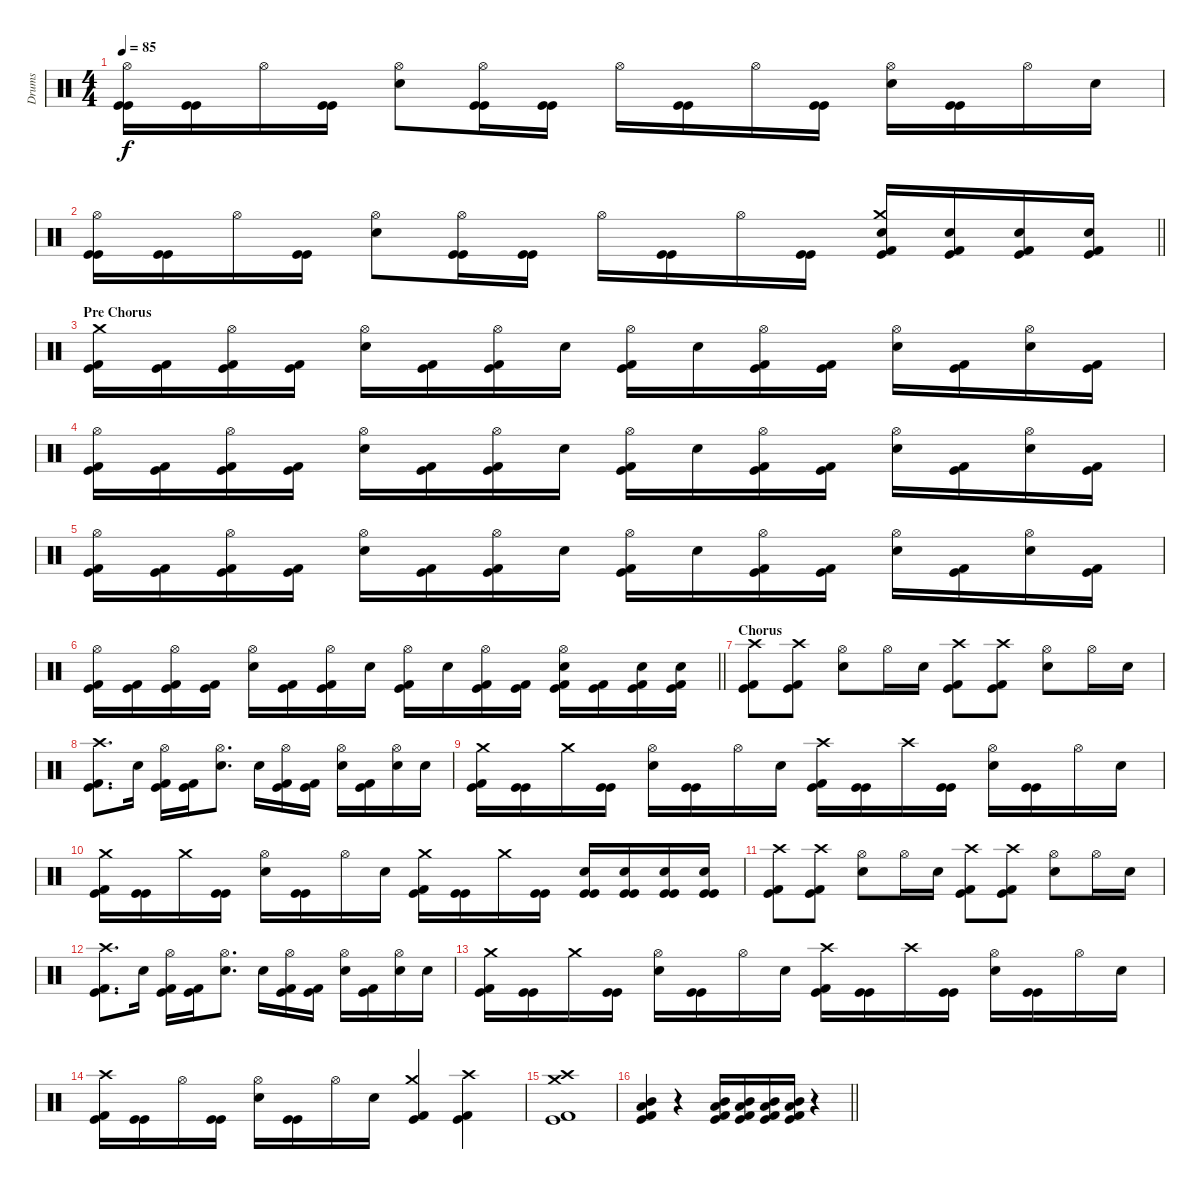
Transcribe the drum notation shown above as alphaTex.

\track ("Drums" "Drums") {instrument percussion}
\staff {score}
\articulation defaults
\ts (4 4)
\tempo 85
\clef neutral
\ks c
("Hi-Hat (open)" "Kick (hit)" "Kick (hit)").16{dy f} ("Kick (hit)" "Kick (hit)").16 "Hi-Hat (open)".16 ("Kick (hit)" "Kick (hit)").16 ("Electric Snare (hit)" "Hi-Hat (open)").8 ("Hi-Hat (open)" "Kick (hit)" "Kick (hit)").16 ("Kick (hit)" "Kick (hit)").16 "Hi-Hat (open)".16 ("Kick (hit)" "Kick (hit)").16 "Hi-Hat (open)".16 ("Kick (hit)" "Kick (hit)").16 ("Electric Snare (hit)" "Hi-Hat (open)").16 ("Kick (hit)" "Kick (hit)").16 "Hi-Hat (open)".16 "Electric Snare (hit)".16 |
\barLineRight lightlight
("Hi-Hat (open)" "Kick (hit)" "Kick (hit)").16 ("Kick (hit)" "Kick (hit)").16 "Hi-Hat (open)".16 ("Kick (hit)" "Kick (hit)").16 ("Electric Snare (hit)" "Hi-Hat (open)").8 ("Hi-Hat (open)" "Kick (hit)" "Kick (hit)").16 ("Kick (hit)" "Kick (hit)").16 "Hi-Hat (open)".16 ("Kick (hit)" "Kick (hit)").16 "Hi-Hat (open)".16 ("Kick (hit)" "Kick (hit)").16 ("Electric Snare (hit)" "Crash medium (hit)" "Kick (hit) 2" "Kick (hit)").16 ("Electric Snare (hit)" "Kick (hit) 2" "Kick (hit)").16 ("Electric Snare (hit)" "Kick (hit) 2" "Kick (hit)").16 ("Electric Snare (hit)" "Kick (hit) 2" "Kick (hit)").16 |
\section ("" "Pre Chorus")
("Crash medium (hit)" "Kick (hit) 2" "Kick (hit)").16 ("Kick (hit) 2" "Kick (hit)").16 ("Hi-Hat (open)" "Kick (hit) 2" "Kick (hit)").16 ("Kick (hit) 2" "Kick (hit)").16 ("Electric Snare (hit)" "Hi-Hat (open)").16 ("Kick (hit) 2" "Kick (hit)").16 ("Hi-Hat (open)" "Kick (hit) 2" "Kick (hit)").16 "Electric Snare (hit)".16 ("Hi-Hat (open)" "Kick (hit) 2" "Kick (hit)").16 "Electric Snare (hit)".16 ("Hi-Hat (open)" "Kick (hit) 2" "Kick (hit)").16 ("Kick (hit) 2" "Kick (hit)").16 ("Electric Snare (hit)" "Hi-Hat (open)").16 ("Kick (hit) 2" "Kick (hit)").16 ("Electric Snare (hit)" "Hi-Hat (open)").16 ("Kick (hit) 2" "Kick (hit)").16 |
("Hi-Hat (open)" "Kick (hit) 2" "Kick (hit)").16 ("Kick (hit) 2" "Kick (hit)").16 ("Hi-Hat (open)" "Kick (hit) 2" "Kick (hit)").16 ("Kick (hit) 2" "Kick (hit)").16 ("Electric Snare (hit)" "Hi-Hat (open)").16 ("Kick (hit) 2" "Kick (hit)").16 ("Hi-Hat (open)" "Kick (hit) 2" "Kick (hit)").16 "Electric Snare (hit)".16 ("Hi-Hat (open)" "Kick (hit) 2" "Kick (hit)").16 "Electric Snare (hit)".16 ("Hi-Hat (open)" "Kick (hit) 2" "Kick (hit)").16 ("Kick (hit) 2" "Kick (hit)").16 ("Electric Snare (hit)" "Hi-Hat (open)").16 ("Kick (hit) 2" "Kick (hit)").16 ("Electric Snare (hit)" "Hi-Hat (open)").16 ("Kick (hit) 2" "Kick (hit)").16 |
("Hi-Hat (open)" "Kick (hit) 2" "Kick (hit)").16 ("Kick (hit) 2" "Kick (hit)").16 ("Hi-Hat (open)" "Kick (hit) 2" "Kick (hit)").16 ("Kick (hit) 2" "Kick (hit)").16 ("Electric Snare (hit)" "Hi-Hat (open)").16 ("Kick (hit) 2" "Kick (hit)").16 ("Hi-Hat (open)" "Kick (hit) 2" "Kick (hit)").16 "Electric Snare (hit)".16 ("Hi-Hat (open)" "Kick (hit) 2" "Kick (hit)").16 "Electric Snare (hit)".16 ("Hi-Hat (open)" "Kick (hit) 2" "Kick (hit)").16 ("Kick (hit) 2" "Kick (hit)").16 ("Electric Snare (hit)" "Hi-Hat (open)").16 ("Kick (hit) 2" "Kick (hit)").16 ("Electric Snare (hit)" "Hi-Hat (open)").16 ("Kick (hit) 2" "Kick (hit)").16 |
\barLineRight lightlight
("Hi-Hat (open)" "Kick (hit) 2" "Kick (hit)").16 ("Kick (hit) 2" "Kick (hit)").16 ("Hi-Hat (open)" "Kick (hit) 2" "Kick (hit)").16 ("Kick (hit) 2" "Kick (hit)").16 ("Electric Snare (hit)" "Hi-Hat (open)").16 ("Kick (hit) 2" "Kick (hit)").16 ("Hi-Hat (open)" "Kick (hit) 2" "Kick (hit)").16 "Electric Snare (hit)".16 ("Hi-Hat (open)" "Kick (hit) 2" "Kick (hit)").16 "Electric Snare (hit)".16 ("Hi-Hat (open)" "Kick (hit) 2" "Kick (hit)").16 ("Kick (hit) 2" "Kick (hit)").16 ("Electric Snare (hit)" "Hi-Hat (open)" "Kick (hit)" "Kick (hit) 2").16 ("Kick (hit)" "Kick (hit) 2").16 ("Electric Snare (hit)" "Kick (hit)" "Kick (hit) 2").16 ("Electric Snare (hit)" "Kick (hit)" "Kick (hit) 2").16 |
\section ("" "Chorus")
("Crash high (hit)" "Kick (hit)" "Kick (hit) 2").8 ("Crash high (hit)" "Kick (hit)" "Kick (hit) 2").8 ("Electric Snare (hit)" "Hi-Hat (open)").8 "Hi-Hat (open)".16 "Electric Snare (hit)".16 ("Crash high (hit)" "Kick (hit)" "Kick (hit) 2").8 ("Crash high (hit)" "Kick (hit)" "Kick (hit) 2").8 ("Electric Snare (hit)" "Hi-Hat (open)").8 "Hi-Hat (open)".16 "Electric Snare (hit)".16 |
("Crash high (hit)" "Kick (hit)" "Kick (hit) 2").8{d} "Electric Snare (hit)".16 ("Hi-Hat (open)" "Kick (hit)" "Kick (hit) 2").16 ("Kick (hit)" "Kick (hit) 2").16 ("Electric Snare (hit)" "Hi-Hat (open)").8{d} "Electric Snare (hit)".16 ("Hi-Hat (open)" "Kick (hit)" "Kick (hit) 2").16 ("Kick (hit)" "Kick (hit) 2").16 ("Electric Snare (hit)" "Hi-Hat (open)").16 ("Kick (hit)" "Kick (hit) 2").16 ("Electric Snare (hit)" "Hi-Hat (open)").16 "Electric Snare (hit)".16 |
("Crash medium (hit)" "Kick (hit) 2" "Kick (hit)").16 ("Kick (hit)" "Kick (hit)").16 "Crash medium (hit)".16 ("Kick (hit)" "Kick (hit)").16 ("Electric Snare (hit)" "Hi-Hat (open)").16 ("Kick (hit)" "Kick (hit)").16 "Hi-Hat (open)".16 "Electric Snare (hit)".16 ("Crash high (hit)" "Kick (hit) 2" "Kick (hit)").16 ("Kick (hit)" "Kick (hit)").16 "Crash high (hit)".16 ("Kick (hit)" "Kick (hit)").16 ("Electric Snare (hit)" "Hi-Hat (open)").16 ("Kick (hit)" "Kick (hit)").16 "Hi-Hat (open)".16 "Electric Snare (hit)".16 |
("Crash medium (hit)" "Kick (hit) 2" "Kick (hit)").16 ("Kick (hit)" "Kick (hit)").16 "Crash medium (hit)".16 ("Kick (hit)" "Kick (hit)").16 ("Electric Snare (hit)" "Hi-Hat (open)").16 ("Kick (hit)" "Kick (hit)").16 "Hi-Hat (open)".16 "Electric Snare (hit)".16 ("Crash medium (hit)" "Kick (hit) 2" "Kick (hit)").16 ("Kick (hit)" "Kick (hit)").16 "Crash medium (hit)".16 ("Kick (hit)" "Kick (hit)").16 ("Electric Snare (hit)" "Kick (hit)" "Kick (hit)").16 ("Electric Snare (hit)" "Kick (hit)" "Kick (hit)").16 ("Electric Snare (hit)" "Kick (hit)" "Kick (hit)").16 ("Electric Snare (hit)" "Kick (hit)" "Kick (hit)").16 |
("Crash high (hit)" "Kick (hit)" "Kick (hit) 2").8 ("Crash high (hit)" "Kick (hit)" "Kick (hit) 2").8 ("Electric Snare (hit)" "Hi-Hat (open)").8 "Hi-Hat (open)".16 "Electric Snare (hit)".16 ("Crash high (hit)" "Kick (hit)" "Kick (hit) 2").8 ("Crash high (hit)" "Kick (hit)" "Kick (hit) 2").8 ("Electric Snare (hit)" "Hi-Hat (open)").8 "Hi-Hat (open)".16 "Electric Snare (hit)".16 |
("Crash high (hit)" "Kick (hit)" "Kick (hit) 2").8{d} "Electric Snare (hit)".16 ("Hi-Hat (open)" "Kick (hit)" "Kick (hit) 2").16 ("Kick (hit)" "Kick (hit) 2").16 ("Electric Snare (hit)" "Hi-Hat (open)").8{d} "Electric Snare (hit)".16 ("Hi-Hat (open)" "Kick (hit)" "Kick (hit) 2").16 ("Kick (hit)" "Kick (hit) 2").16 ("Electric Snare (hit)" "Hi-Hat (open)").16 ("Kick (hit)" "Kick (hit) 2").16 ("Electric Snare (hit)" "Hi-Hat (open)").16 "Electric Snare (hit)".16 |
("Crash medium (hit)" "Kick (hit) 2" "Kick (hit)").16 ("Kick (hit)" "Kick (hit)").16 "Crash medium (hit)".16 ("Kick (hit)" "Kick (hit)").16 ("Electric Snare (hit)" "Hi-Hat (open)").16 ("Kick (hit)" "Kick (hit)").16 "Hi-Hat (open)".16 "Electric Snare (hit)".16 ("Crash high (hit)" "Kick (hit) 2" "Kick (hit)").16 ("Kick (hit)" "Kick (hit)").16 "Crash high (hit)".16 ("Kick (hit)" "Kick (hit)").16 ("Electric Snare (hit)" "Hi-Hat (open)").16 ("Kick (hit)" "Kick (hit)").16 "Hi-Hat (open)".16 "Electric Snare (hit)".16 |
("Crash high (hit)" "Kick (hit) 2" "Kick (hit)").16 ("Kick (hit)" "Kick (hit)").16 "Hi-Hat (open)".16 ("Kick (hit)" "Kick (hit)").16 ("Electric Snare (hit)" "Hi-Hat (open)").16 ("Kick (hit)" "Kick (hit)").16 "Hi-Hat (open)".16 "Electric Snare (hit)".16 ("Crash medium (hit)" "Kick (hit) 2" "Kick (hit)").4 ("Crash high (hit)" "Kick (hit) 2" "Kick (hit)").4 |
("Crash medium (hit)" "Crash high (hit)" "Kick (hit) 2" "Kick (hit)").1 |
\barLineRight lightlight
("Mid Tom (hit)" "Low Tom (hit)" "Kick (hit) 2" "Kick (hit)").4 r.4 ("Mid Tom (hit)" "Low Tom (hit)" "Kick (hit) 2" "Kick (hit)").16 ("Mid Tom (hit)" "Low Tom (hit)" "Kick (hit) 2" "Kick (hit)").16 ("Mid Tom (hit)" "Low Tom (hit)" "Kick (hit) 2" "Kick (hit)").16 ("Mid Tom (hit)" "Low Tom (hit)" "Kick (hit) 2" "Kick (hit)").16 r.4
